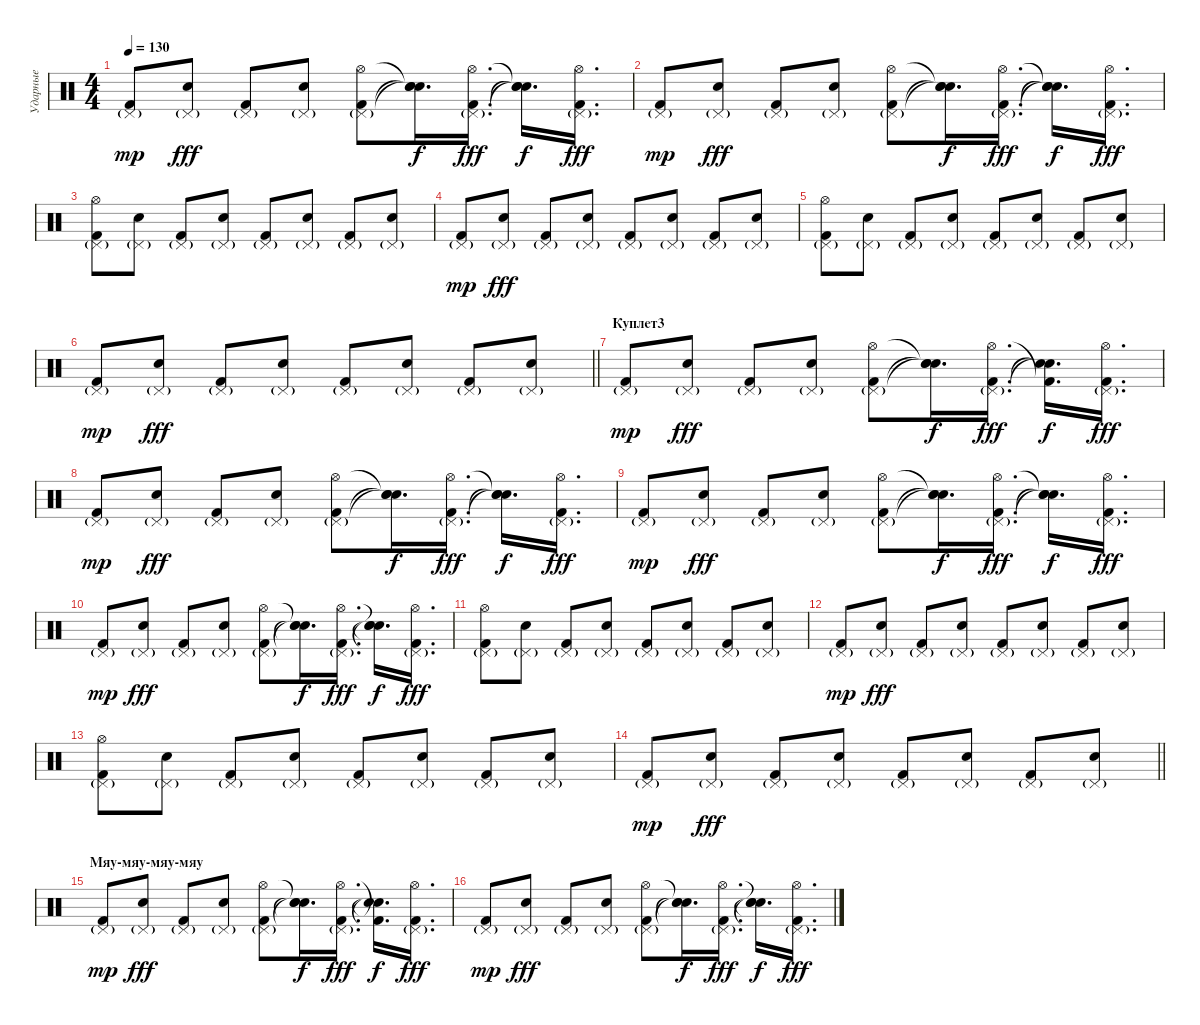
\track ("Ударные" "Ударные") {instrument percussion}
\staff {score}
\articulation defaults
\ts (4 4)
\tempo 130
\clef neutral
\ks c
("Pedal Hi-Hat (hit)"{g} "Kick (hit) 2").8{dy mp} ("Pedal Hi-Hat (hit)"{g} "Electric Snare (hit)").8{dy fff} ("Pedal Hi-Hat (hit)"{g} "Kick (hit) 2").8 ("Pedal Hi-Hat (hit)"{g} "Electric Snare (hit)").8 ("Pedal Hi-Hat (hit)"{g} "Hi-Hat (open)" "Kick (hit) 2").8 ("Snare (hit)"{t} "Snare (hit)"{t} "Snare (hit)"{t}).16{d dy f} ("Pedal Hi-Hat (hit)"{g} "Hi-Hat (open)" "Kick (hit) 2").16{d dy fff} ("Snare (hit)"{t} "Snare (hit)"{t} "Snare (hit)"{t}).16{d dy f} ("Pedal Hi-Hat (hit)"{g} "Hi-Hat (open)" "Kick (hit) 2").16{d dy fff} |
("Pedal Hi-Hat (hit)"{g} "Kick (hit) 2").8{dy mp} ("Pedal Hi-Hat (hit)"{g} "Electric Snare (hit)").8{dy fff} ("Pedal Hi-Hat (hit)"{g} "Kick (hit) 2").8 ("Pedal Hi-Hat (hit)"{g} "Electric Snare (hit)").8 ("Pedal Hi-Hat (hit)"{g} "Hi-Hat (open)" "Kick (hit) 2").8 ("Snare (hit)"{t} "Snare (hit)"{t} "Snare (hit)"{t}).16{d dy f} ("Pedal Hi-Hat (hit)"{g} "Hi-Hat (open)" "Kick (hit) 2").16{d dy fff} ("Snare (hit)"{t} "Snare (hit)"{t} "Snare (hit)"{t}).16{d dy f} ("Pedal Hi-Hat (hit)"{g} "Hi-Hat (open)" "Kick (hit) 2").16{d dy fff} |
("Pedal Hi-Hat (hit)"{g} "Kick (hit) 2" "Hi-Hat (open)").8 ("Pedal Hi-Hat (hit)"{g} "Electric Snare (hit)").8 ("Pedal Hi-Hat (hit)"{g} "Kick (hit) 2").8 ("Pedal Hi-Hat (hit)"{g} "Electric Snare (hit)").8 ("Pedal Hi-Hat (hit)"{g} "Kick (hit) 2").8 ("Pedal Hi-Hat (hit)"{g} "Electric Snare (hit)").8 ("Pedal Hi-Hat (hit)"{g} "Kick (hit) 2").8 ("Pedal Hi-Hat (hit)"{g} "Electric Snare (hit)").8 |
("Pedal Hi-Hat (hit)"{g} "Kick (hit) 2").8{dy mp} ("Pedal Hi-Hat (hit)"{g} "Electric Snare (hit)").8{dy fff} ("Pedal Hi-Hat (hit)"{g} "Kick (hit) 2").8 ("Pedal Hi-Hat (hit)"{g} "Electric Snare (hit)").8 ("Pedal Hi-Hat (hit)"{g} "Kick (hit) 2").8 ("Pedal Hi-Hat (hit)"{g} "Electric Snare (hit)").8 ("Pedal Hi-Hat (hit)"{g} "Kick (hit) 2").8 ("Pedal Hi-Hat (hit)"{g} "Electric Snare (hit)").8 |
("Pedal Hi-Hat (hit)"{g} "Kick (hit) 2" "Hi-Hat (open)").8 ("Pedal Hi-Hat (hit)"{g} "Electric Snare (hit)").8 ("Pedal Hi-Hat (hit)"{g} "Kick (hit) 2").8 ("Pedal Hi-Hat (hit)"{g} "Electric Snare (hit)").8 ("Pedal Hi-Hat (hit)"{g} "Kick (hit) 2").8 ("Pedal Hi-Hat (hit)"{g} "Electric Snare (hit)").8 ("Pedal Hi-Hat (hit)"{g} "Kick (hit) 2").8 ("Pedal Hi-Hat (hit)"{g} "Electric Snare (hit)").8 |
\barLineRight lightlight
("Pedal Hi-Hat (hit)"{g} "Kick (hit) 2").8{dy mp} ("Pedal Hi-Hat (hit)"{g} "Electric Snare (hit)").8{dy fff} ("Pedal Hi-Hat (hit)"{g} "Kick (hit) 2").8 ("Pedal Hi-Hat (hit)"{g} "Electric Snare (hit)").8 ("Pedal Hi-Hat (hit)"{g} "Kick (hit) 2").8 ("Pedal Hi-Hat (hit)"{g} "Electric Snare (hit)").8 ("Pedal Hi-Hat (hit)"{g} "Kick (hit) 2").8 ("Pedal Hi-Hat (hit)"{g} "Electric Snare (hit)").8 |
\section ("" "Куплет3")
("Pedal Hi-Hat (hit)"{g} "Kick (hit) 2").8{dy mp} ("Pedal Hi-Hat (hit)"{g} "Electric Snare (hit)").8{dy fff} ("Pedal Hi-Hat (hit)"{g} "Kick (hit) 2").8 ("Pedal Hi-Hat (hit)"{g} "Electric Snare (hit)").8 ("Pedal Hi-Hat (hit)"{g} "Hi-Hat (open)" "Kick (hit) 2").8 ("Snare (hit)"{t} "Snare (hit)"{t} "Snare (hit)"{t}).16{d dy f} ("Pedal Hi-Hat (hit)"{g} "Hi-Hat (open)" "Kick (hit) 2").16{d dy fff} ("Snare (hit)"{t} "Kick (hit) 2"{t} "Snare (hit)"{t}).16{d dy f} ("Pedal Hi-Hat (hit)"{g} "Hi-Hat (open)" "Kick (hit) 2").16{d dy fff} |
("Pedal Hi-Hat (hit)"{g} "Kick (hit) 2").8{dy mp} ("Pedal Hi-Hat (hit)"{g} "Electric Snare (hit)").8{dy fff} ("Pedal Hi-Hat (hit)"{g} "Kick (hit) 2").8 ("Pedal Hi-Hat (hit)"{g} "Electric Snare (hit)").8 ("Pedal Hi-Hat (hit)"{g} "Hi-Hat (open)" "Kick (hit) 2").8 ("Snare (hit)"{t} "Snare (hit)"{t} "Snare (hit)"{t}).16{d dy f} ("Pedal Hi-Hat (hit)"{g} "Hi-Hat (open)" "Kick (hit) 2").16{d dy fff} ("Snare (hit)"{t} "Snare (hit)"{t} "Snare (hit)"{t}).16{d dy f} ("Pedal Hi-Hat (hit)"{g} "Hi-Hat (open)" "Kick (hit) 2").16{d dy fff} |
("Pedal Hi-Hat (hit)"{g} "Kick (hit) 2").8{dy mp} ("Pedal Hi-Hat (hit)"{g} "Electric Snare (hit)").8{dy fff} ("Pedal Hi-Hat (hit)"{g} "Kick (hit) 2").8 ("Pedal Hi-Hat (hit)"{g} "Electric Snare (hit)").8 ("Pedal Hi-Hat (hit)"{g} "Hi-Hat (open)" "Kick (hit) 2").8 ("Snare (hit)"{t} "Snare (hit)"{t} "Snare (hit)"{t}).16{d dy f} ("Pedal Hi-Hat (hit)"{g} "Hi-Hat (open)" "Kick (hit) 2").16{d dy fff} ("Snare (hit)"{t} "Snare (hit)"{t} "Snare (hit)"{t}).16{d dy f} ("Pedal Hi-Hat (hit)"{g} "Hi-Hat (open)" "Kick (hit) 2").16{d dy fff} |
("Pedal Hi-Hat (hit)"{g} "Kick (hit) 2").8{dy mp} ("Pedal Hi-Hat (hit)"{g} "Electric Snare (hit)").8{dy fff} ("Pedal Hi-Hat (hit)"{g} "Kick (hit) 2").8 ("Pedal Hi-Hat (hit)"{g} "Electric Snare (hit)").8 ("Pedal Hi-Hat (hit)"{g} "Hi-Hat (open)" "Kick (hit) 2").8 ("Snare (hit)"{t} "Snare (hit)"{t} "Snare (hit)"{t}).16{d dy f} ("Pedal Hi-Hat (hit)"{g} "Hi-Hat (open)" "Kick (hit) 2").16{d dy fff} ("Snare (hit)"{t} "Snare (hit)"{t} "Snare (hit)"{t}).16{d dy f} ("Pedal Hi-Hat (hit)"{g} "Hi-Hat (open)" "Kick (hit) 2").16{d dy fff} |
("Pedal Hi-Hat (hit)"{g} "Kick (hit) 2" "Hi-Hat (open)").8 ("Pedal Hi-Hat (hit)"{g} "Electric Snare (hit)").8 ("Pedal Hi-Hat (hit)"{g} "Kick (hit) 2").8 ("Pedal Hi-Hat (hit)"{g} "Electric Snare (hit)").8 ("Pedal Hi-Hat (hit)"{g} "Kick (hit) 2").8 ("Pedal Hi-Hat (hit)"{g} "Electric Snare (hit)").8 ("Pedal Hi-Hat (hit)"{g} "Kick (hit) 2").8 ("Pedal Hi-Hat (hit)"{g} "Electric Snare (hit)").8 |
("Pedal Hi-Hat (hit)"{g} "Kick (hit) 2").8{dy mp} ("Pedal Hi-Hat (hit)"{g} "Electric Snare (hit)").8{dy fff} ("Pedal Hi-Hat (hit)"{g} "Kick (hit) 2").8 ("Pedal Hi-Hat (hit)"{g} "Electric Snare (hit)").8 ("Pedal Hi-Hat (hit)"{g} "Kick (hit) 2").8 ("Pedal Hi-Hat (hit)"{g} "Electric Snare (hit)").8 ("Pedal Hi-Hat (hit)"{g} "Kick (hit) 2").8 ("Pedal Hi-Hat (hit)"{g} "Electric Snare (hit)").8 |
("Pedal Hi-Hat (hit)"{g} "Kick (hit) 2" "Hi-Hat (open)").8 ("Pedal Hi-Hat (hit)"{g} "Electric Snare (hit)").8 ("Pedal Hi-Hat (hit)"{g} "Kick (hit) 2").8 ("Pedal Hi-Hat (hit)"{g} "Electric Snare (hit)").8 ("Pedal Hi-Hat (hit)"{g} "Kick (hit) 2").8 ("Pedal Hi-Hat (hit)"{g} "Electric Snare (hit)").8 ("Pedal Hi-Hat (hit)"{g} "Kick (hit) 2").8 ("Pedal Hi-Hat (hit)"{g} "Electric Snare (hit)").8 |
\barLineRight lightlight
("Pedal Hi-Hat (hit)"{g} "Kick (hit) 2").8{dy mp} ("Pedal Hi-Hat (hit)"{g} "Electric Snare (hit)").8{dy fff} ("Pedal Hi-Hat (hit)"{g} "Kick (hit) 2").8 ("Pedal Hi-Hat (hit)"{g} "Electric Snare (hit)").8 ("Pedal Hi-Hat (hit)"{g} "Kick (hit) 2").8 ("Pedal Hi-Hat (hit)"{g} "Electric Snare (hit)").8 ("Pedal Hi-Hat (hit)"{g} "Kick (hit) 2").8 ("Pedal Hi-Hat (hit)"{g} "Electric Snare (hit)").8 |
\section ("" "Мяу-мяу-мяу-мяу")
("Pedal Hi-Hat (hit)"{g} "Kick (hit) 2").8{dy mp} ("Pedal Hi-Hat (hit)"{g} "Electric Snare (hit)").8{dy fff} ("Pedal Hi-Hat (hit)"{g} "Kick (hit) 2").8 ("Pedal Hi-Hat (hit)"{g} "Electric Snare (hit)").8 ("Pedal Hi-Hat (hit)"{g} "Hi-Hat (open)" "Kick (hit) 2").8 ("Snare (hit)"{t} "Snare (hit)"{t} "Snare (hit)"{t}).16{d dy f} ("Pedal Hi-Hat (hit)"{g} "Hi-Hat (open)" "Kick (hit) 2").16{d dy fff} ("Snare (hit)"{t} "Kick (hit) 2"{t} "Snare (hit)"{t}).16{d dy f} ("Pedal Hi-Hat (hit)"{g} "Hi-Hat (open)" "Kick (hit) 2").16{d dy fff} |
("Pedal Hi-Hat (hit)"{g} "Kick (hit) 2").8{dy mp} ("Pedal Hi-Hat (hit)"{g} "Electric Snare (hit)").8{dy fff} ("Pedal Hi-Hat (hit)"{g} "Kick (hit) 2").8 ("Pedal Hi-Hat (hit)"{g} "Electric Snare (hit)").8 ("Pedal Hi-Hat (hit)"{g} "Hi-Hat (open)" "Kick (hit) 2").8 ("Snare (hit)"{t} "Snare (hit)"{t} "Snare (hit)"{t}).16{d dy f} ("Pedal Hi-Hat (hit)"{g} "Hi-Hat (open)" "Kick (hit) 2").16{d dy fff} ("Snare (hit)"{t} "Snare (hit)"{t} "Snare (hit)"{t}).16{d dy f} ("Pedal Hi-Hat (hit)"{g} "Hi-Hat (open)" "Kick (hit) 2").16{d dy fff}
